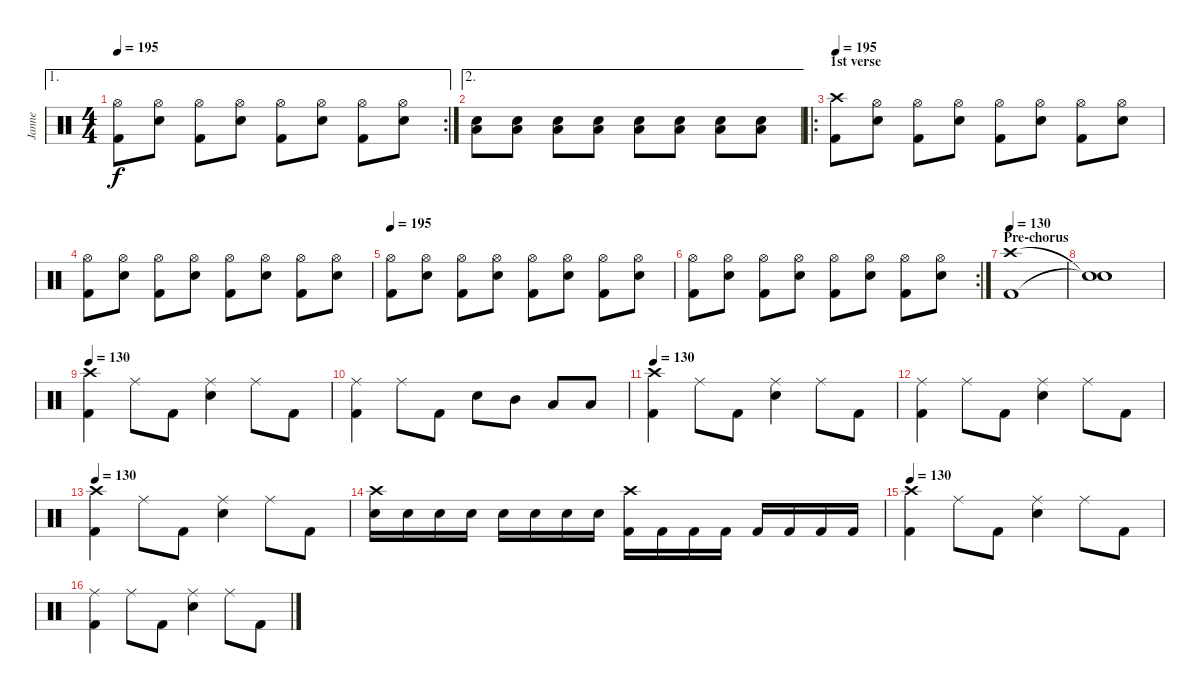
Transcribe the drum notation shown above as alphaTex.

\track ("Janne" "Janne") {instrument percussion}
\staff {score}
\articulation defaults
\ae 1
\rc 2
\ts (4 4)
\tempo 195
\clef neutral
\ks c
("Hi-Hat (open)" "Kick (hit) 2").8{dy f} ("Hi-Hat (open)" "Electric Snare (hit)").8 ("Hi-Hat (open)" "Kick (hit) 2").8 ("Hi-Hat (open)" "Electric Snare (hit)").8 ("Hi-Hat (open)" "Kick (hit) 2").8 ("Hi-Hat (open)" "Electric Snare (hit)").8 ("Hi-Hat (open)" "Kick (hit) 2").8 ("Hi-Hat (open)" "Electric Snare (hit)").8 |
\ae 2
("Low Floor Tom (hit)" "Electric Snare (hit)").8 ("Low Floor Tom (hit)" "Electric Snare (hit)").8 ("Low Floor Tom (hit)" "Electric Snare (hit)").8 ("Low Floor Tom (hit)" "Electric Snare (hit)").8 ("Low Floor Tom (hit)" "Electric Snare (hit)").8 ("Low Floor Tom (hit)" "Electric Snare (hit)").8 ("Low Floor Tom (hit)" "Electric Snare (hit)").8 ("Low Floor Tom (hit)" "Electric Snare (hit)").8 |
\ro
\section ("" "1st verse")
\tempo 195
("Crash high (hit)" "Kick (hit) 2").8 ("Hi-Hat (open)" "Electric Snare (hit)").8 ("Hi-Hat (open)" "Kick (hit) 2").8 ("Hi-Hat (open)" "Electric Snare (hit)").8 ("Hi-Hat (open)" "Kick (hit) 2").8 ("Hi-Hat (open)" "Electric Snare (hit)").8 ("Hi-Hat (open)" "Kick (hit) 2").8 ("Hi-Hat (open)" "Electric Snare (hit)").8 |
("Hi-Hat (open)" "Kick (hit) 2").8 ("Hi-Hat (open)" "Electric Snare (hit)").8 ("Hi-Hat (open)" "Kick (hit) 2").8 ("Hi-Hat (open)" "Electric Snare (hit)").8 ("Hi-Hat (open)" "Kick (hit) 2").8 ("Hi-Hat (open)" "Electric Snare (hit)").8 ("Hi-Hat (open)" "Kick (hit) 2").8 ("Hi-Hat (open)" "Electric Snare (hit)").8 |
\tempo 195
("Hi-Hat (open)" "Kick (hit) 2").8 ("Hi-Hat (open)" "Electric Snare (hit)").8 ("Hi-Hat (open)" "Kick (hit) 2").8 ("Hi-Hat (open)" "Electric Snare (hit)").8 ("Hi-Hat (open)" "Kick (hit) 2").8 ("Hi-Hat (open)" "Electric Snare (hit)").8 ("Hi-Hat (open)" "Kick (hit) 2").8 ("Hi-Hat (open)" "Electric Snare (hit)").8 |
\rc 2
("Hi-Hat (open)" "Kick (hit) 2").8 ("Hi-Hat (open)" "Electric Snare (hit)").8 ("Hi-Hat (open)" "Kick (hit) 2").8 ("Hi-Hat (open)" "Electric Snare (hit)").8 ("Hi-Hat (open)" "Kick (hit) 2").8 ("Hi-Hat (open)" "Electric Snare (hit)").8 ("Hi-Hat (open)" "Kick (hit) 2").8 ("Hi-Hat (open)" "Electric Snare (hit)").8 |
\section ("" "Pre-chorus")
\tempo 130
("Crash high (hit)" "Kick (hit) 2").1 |
("Snare (hit)"{t} "Snare (hit)"{t}).1 |
\tempo 130
("Crash high (hit)" "Kick (hit) 2").4 "Ride (middle)".8 "Kick (hit) 2".8 ("Ride (middle)" "Electric Snare (hit)").4 "Ride (middle)".8 "Kick (hit) 2".8 |
("Ride (middle)" "Kick (hit) 2").4 "Ride (middle)".8 "Kick (hit) 2".8 "Electric Snare (hit)".8 "Mid Tom (hit)".8 "Low Tom (hit)".8 "Low Floor Tom (hit)".8 |
\tempo 130
("Crash high (hit)" "Kick (hit) 2").4 "Ride (middle)".8 "Kick (hit) 2".8 ("Ride (middle)" "Electric Snare (hit)").4 "Ride (middle)".8 "Kick (hit) 2".8 |
("Ride (middle)" "Kick (hit) 2").4 "Ride (middle)".8 "Kick (hit) 2".8 ("Ride (middle)" "Electric Snare (hit)").4 "Ride (middle)".8 "Kick (hit) 2".8 |
\tempo 130
("Crash high (hit)" "Kick (hit) 2").4 "Ride (middle)".8 "Kick (hit) 2".8 ("Ride (middle)" "Electric Snare (hit)").4 "Ride (middle)".8 "Kick (hit) 2".8 |
("Crash high (hit)" "Electric Snare (hit)").16 "Electric Snare (hit)".16 "Electric Snare (hit)".16 "Electric Snare (hit)".16 "Electric Snare (hit)".16 "Electric Snare (hit)".16 "Electric Snare (hit)".16 "Electric Snare (hit)".16 ("Crash high (hit)" "Kick (hit) 2").16 "Kick (hit) 2".16 "Kick (hit) 2".16 "Kick (hit) 2".16 "Kick (hit) 2".16 "Kick (hit) 2".16 "Kick (hit) 2".16 "Kick (hit) 2".16 |
\tempo 130
("Crash high (hit)" "Kick (hit) 2").4 "Ride (middle)".8 "Kick (hit) 2".8 ("Ride (middle)" "Electric Snare (hit)").4 "Ride (middle)".8 "Kick (hit) 2".8 |
("Ride (middle)" "Kick (hit) 2").4 "Ride (middle)".8 "Kick (hit) 2".8 ("Ride (middle)" "Electric Snare (hit)").4 "Ride (middle)".8 "Kick (hit) 2".8
